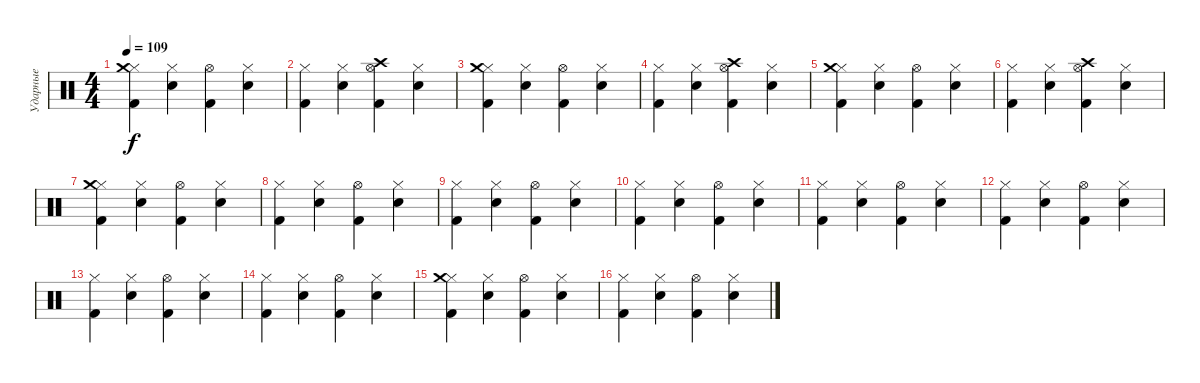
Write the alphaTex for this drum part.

\track ("Ударные" "Ударные") {instrument percussion}
\staff {score}
\articulation defaults
\ts (4 4)
\tempo 109
\clef neutral
\ks c
("Hi-Hat (closed)" "Kick (hit) 2" "Crash medium (hit)").4{dy f} ("Hi-Hat (closed)" "Snare (hit) 2").4 ("Hi-Hat (open)" "Kick (hit) 2").4 ("Hi-Hat (closed)" "Snare (hit) 2").4 |
("Hi-Hat (closed)" "Kick (hit) 2").4 ("Hi-Hat (closed)" "Snare (hit) 2").4 ("Hi-Hat (open)" "Crash high (hit)" "Kick (hit) 2").4 ("Hi-Hat (closed)" "Snare (hit) 2").4 |
("Hi-Hat (closed)" "Kick (hit) 2" "Crash medium (hit)").4 ("Hi-Hat (closed)" "Snare (hit) 2").4 ("Hi-Hat (open)" "Kick (hit) 2").4 ("Hi-Hat (closed)" "Snare (hit) 2").4 |
("Hi-Hat (closed)" "Kick (hit) 2").4 ("Hi-Hat (closed)" "Snare (hit) 2").4 ("Hi-Hat (open)" "Crash high (hit)" "Kick (hit) 2").4 ("Hi-Hat (closed)" "Snare (hit) 2").4 |
("Hi-Hat (closed)" "Kick (hit) 2" "Crash medium (hit)").4 ("Hi-Hat (closed)" "Snare (hit) 2").4 ("Hi-Hat (open)" "Kick (hit) 2").4 ("Hi-Hat (closed)" "Snare (hit) 2").4 |
("Hi-Hat (closed)" "Kick (hit) 2").4 ("Hi-Hat (closed)" "Snare (hit) 2").4 ("Hi-Hat (open)" "Crash high (hit)" "Kick (hit) 2").4 ("Hi-Hat (closed)" "Snare (hit) 2").4 |
("Hi-Hat (closed)" "Kick (hit) 2" "Crash medium (hit)").4 ("Hi-Hat (closed)" "Snare (hit) 2").4 ("Hi-Hat (open)" "Kick (hit) 2").4 ("Hi-Hat (closed)" "Snare (hit) 2").4 |
("Hi-Hat (closed)" "Kick (hit) 2").4 ("Hi-Hat (closed)" "Snare (hit) 2").4 ("Hi-Hat (open)" "Kick (hit) 2").4 ("Hi-Hat (closed)" "Snare (hit) 2").4 |
("Hi-Hat (closed)" "Kick (hit) 2").4 ("Hi-Hat (closed)" "Snare (hit) 2").4 ("Hi-Hat (open)" "Kick (hit) 2").4 ("Hi-Hat (closed)" "Snare (hit) 2").4 |
("Hi-Hat (closed)" "Kick (hit) 2").4 ("Hi-Hat (closed)" "Snare (hit) 2").4 ("Hi-Hat (open)" "Kick (hit) 2").4 ("Hi-Hat (closed)" "Snare (hit) 2").4 |
("Hi-Hat (closed)" "Kick (hit) 2").4 ("Hi-Hat (closed)" "Snare (hit) 2").4 ("Hi-Hat (open)" "Kick (hit) 2").4 ("Hi-Hat (closed)" "Snare (hit) 2").4 |
("Hi-Hat (closed)" "Kick (hit) 2").4 ("Hi-Hat (closed)" "Snare (hit) 2").4 ("Hi-Hat (open)" "Kick (hit) 2").4 ("Hi-Hat (closed)" "Snare (hit) 2").4 |
("Hi-Hat (closed)" "Kick (hit) 2").4 ("Hi-Hat (closed)" "Snare (hit) 2").4 ("Hi-Hat (open)" "Kick (hit) 2").4 ("Hi-Hat (closed)" "Snare (hit) 2").4 |
("Hi-Hat (closed)" "Kick (hit) 2").4 ("Hi-Hat (closed)" "Snare (hit) 2").4 ("Hi-Hat (open)" "Kick (hit) 2").4 ("Hi-Hat (closed)" "Snare (hit) 2").4 |
("Hi-Hat (closed)" "Crash medium (hit)" "Kick (hit) 2").4 ("Hi-Hat (closed)" "Snare (hit) 2").4 ("Hi-Hat (open)" "Kick (hit) 2").4 ("Hi-Hat (closed)" "Snare (hit) 2").4 |
("Hi-Hat (closed)" "Kick (hit) 2").4 ("Hi-Hat (closed)" "Snare (hit) 2").4 ("Hi-Hat (open)" "Kick (hit) 2").4 ("Hi-Hat (closed)" "Snare (hit) 2").4
